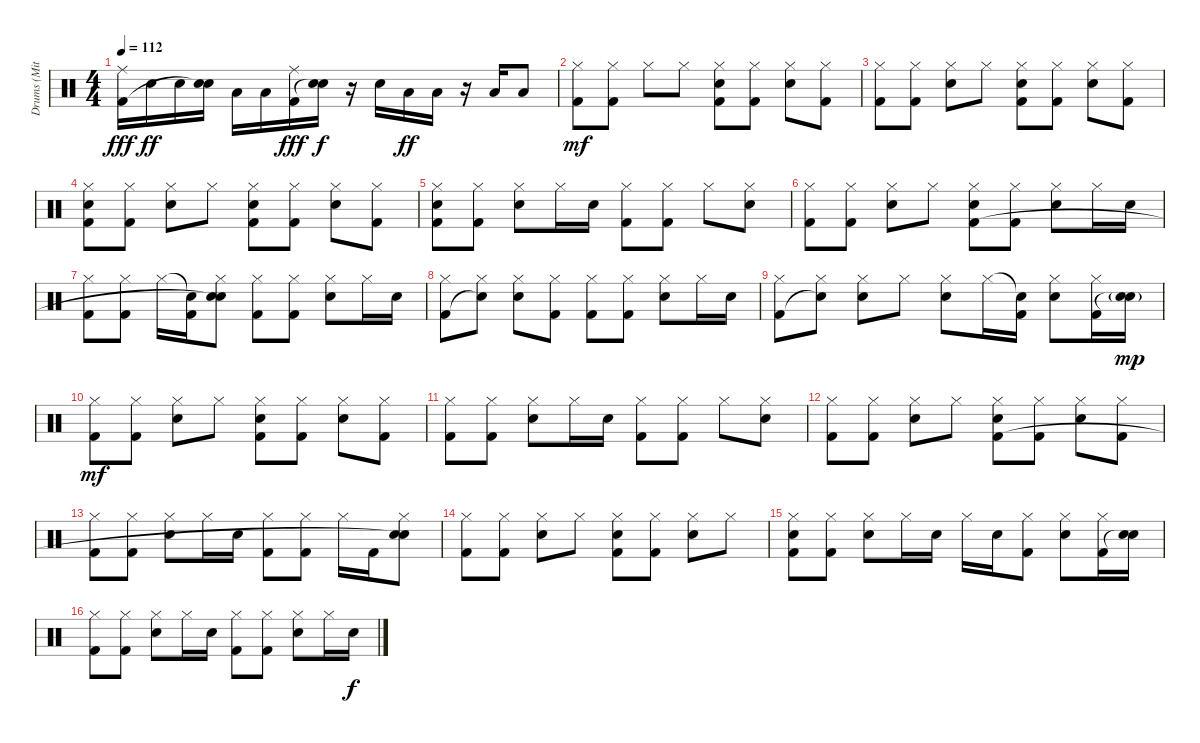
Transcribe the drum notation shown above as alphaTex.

\track ("Drums (Mitch Mitchell)" "Drums (Mit") {instrument percussion}
\staff {score}
\articulation defaults
\ts (4 4)
\tempo 112
\clef neutral
\ks c
("Ride (middle)" "Kick (hit) 2").16{dy fff} "Electric Snare (hit)".16{dy ff} "Electric Snare (hit)".16 ("Electric Snare (hit)" "Snare (hit)"{t}).16 "Low Tom (hit)".16 "Low Tom (hit)".16 ("Ride (middle)" "Kick (hit) 2").16{dy fff} ("Electric Snare (hit)" "Snare (hit)"{t}).16{dy f} r.16 "Electric Snare (hit)".16 "Low Tom (hit)".16{dy ff} "Low Tom (hit)".16 r.16 "Low Tom (hit)".16 "Low Tom (hit)".8 |
("Hi-Hat (closed)" "Kick (hit) 2").8{dy mf} ("Hi-Hat (closed)" "Kick (hit) 2").8 "Hi-Hat (closed)".8 "Hi-Hat (closed)".8 ("Hi-Hat (closed)" "Electric Snare (hit)" "Kick (hit) 2").8 ("Hi-Hat (closed)" "Kick (hit) 2").8 ("Hi-Hat (closed)" "Electric Snare (hit)").8 ("Hi-Hat (closed)" "Kick (hit) 2").8 |
("Hi-Hat (closed)" "Kick (hit) 2").8 ("Hi-Hat (closed)" "Kick (hit) 2").8 ("Hi-Hat (closed)" "Electric Snare (hit)").8 "Hi-Hat (closed)".8 ("Hi-Hat (closed)" "Electric Snare (hit)" "Kick (hit) 2").8 ("Hi-Hat (closed)" "Kick (hit) 2").8 ("Hi-Hat (closed)" "Electric Snare (hit)").8 ("Hi-Hat (closed)" "Kick (hit) 2").8 |
("Hi-Hat (closed)" "Electric Snare (hit)" "Kick (hit) 2").8 ("Hi-Hat (closed)" "Kick (hit) 2").8 ("Hi-Hat (closed)" "Electric Snare (hit)").8 "Hi-Hat (closed)".8 ("Hi-Hat (closed)" "Electric Snare (hit)" "Kick (hit) 2").8 ("Hi-Hat (closed)" "Kick (hit) 2").8 ("Hi-Hat (closed)" "Electric Snare (hit)").8 ("Hi-Hat (closed)" "Kick (hit) 2").8 |
("Hi-Hat (closed)" "Electric Snare (hit)" "Kick (hit) 2").8 ("Hi-Hat (closed)" "Kick (hit) 2").8 ("Hi-Hat (closed)" "Electric Snare (hit)").8 "Hi-Hat (closed)".16 "Electric Snare (hit)".16 ("Hi-Hat (closed)" "Kick (hit) 2").8 ("Hi-Hat (closed)" "Kick (hit) 2").8 "Hi-Hat (closed)".8 ("Hi-Hat (closed)" "Electric Snare (hit)").8 |
("Hi-Hat (closed)" "Kick (hit) 2").8 ("Hi-Hat (closed)" "Kick (hit) 2").8 ("Hi-Hat (closed)" "Electric Snare (hit)").8 "Hi-Hat (closed)".8 ("Hi-Hat (closed)" "Electric Snare (hit)" "Kick (hit) 2").8 ("Hi-Hat (closed)" "Kick (hit) 2").8 ("Hi-Hat (closed)" "Electric Snare (hit)").8 "Hi-Hat (closed)".16 "Electric Snare (hit)".16 |
("Hi-Hat (closed)" "Kick (hit) 2").8 ("Hi-Hat (closed)" "Kick (hit) 2").8 "Hi-Hat (closed)".16 ("Snare (hit)"{t} "Kick (hit) 2").16 ("Hi-Hat (closed)" "Electric Snare (hit)" "Snare (hit)"{t}).8 ("Hi-Hat (closed)" "Kick (hit) 2").8 ("Hi-Hat (closed)" "Kick (hit) 2").8 ("Hi-Hat (closed)" "Electric Snare (hit)").8 "Hi-Hat (closed)".16 "Electric Snare (hit)".16 |
("Hi-Hat (closed)" "Kick (hit) 2").8 ("Hi-Hat (closed)" "Snare (hit)"{t}).8 ("Hi-Hat (closed)" "Electric Snare (hit)").8 ("Hi-Hat (closed)" "Kick (hit) 2").8 ("Hi-Hat (closed)" "Kick (hit) 2").8 ("Hi-Hat (closed)" "Kick (hit) 2").8 ("Hi-Hat (closed)" "Electric Snare (hit)").8 "Hi-Hat (closed)".16 "Electric Snare (hit)".16 |
("Hi-Hat (closed)" "Kick (hit) 2").8 ("Hi-Hat (closed)" "Snare (hit)"{t}).8 ("Hi-Hat (closed)" "Electric Snare (hit)").8 "Hi-Hat (closed)".8 ("Hi-Hat (closed)" "Electric Snare (hit)").8 "Hi-Hat (closed)".16 ("Snare (hit)"{t} "Kick (hit) 2").16 ("Hi-Hat (closed)" "Electric Snare (hit)").8 ("Hi-Hat (closed)" "Kick (hit) 2").16 ("Electric Snare (hit)"{g} "Snare (hit)"{t}).16{dy mp} |
("Hi-Hat (closed)" "Kick (hit) 2").8{dy mf} ("Hi-Hat (closed)" "Kick (hit) 2").8 ("Hi-Hat (closed)" "Electric Snare (hit)").8 "Hi-Hat (closed)".8 ("Hi-Hat (closed)" "Electric Snare (hit)" "Kick (hit) 2").8 ("Hi-Hat (closed)" "Kick (hit) 2").8 ("Hi-Hat (closed)" "Electric Snare (hit)").8 ("Hi-Hat (closed)" "Kick (hit) 2").8 |
("Hi-Hat (closed)" "Kick (hit) 2").8 ("Hi-Hat (closed)" "Kick (hit) 2").8 ("Hi-Hat (closed)" "Electric Snare (hit)").8 "Hi-Hat (closed)".16 "Electric Snare (hit)".16 ("Hi-Hat (closed)" "Kick (hit) 2").8 ("Hi-Hat (closed)" "Kick (hit) 2").8 "Hi-Hat (closed)".8 ("Hi-Hat (closed)" "Electric Snare (hit)").8 |
("Hi-Hat (closed)" "Kick (hit) 2").8 ("Hi-Hat (closed)" "Kick (hit) 2").8 ("Hi-Hat (closed)" "Electric Snare (hit)").8 "Hi-Hat (closed)".8 ("Hi-Hat (closed)" "Electric Snare (hit)" "Kick (hit) 2").8 ("Hi-Hat (closed)" "Kick (hit) 2").8 ("Hi-Hat (closed)" "Electric Snare (hit)").8 ("Hi-Hat (closed)" "Kick (hit) 2").8 |
("Hi-Hat (closed)" "Kick (hit) 2").8 ("Hi-Hat (closed)" "Kick (hit) 2").8 ("Hi-Hat (closed)" "Electric Snare (hit)").8 "Hi-Hat (closed)".16 "Electric Snare (hit)".16 ("Hi-Hat (closed)" "Kick (hit) 2").8 ("Hi-Hat (closed)" "Kick (hit) 2").8 "Hi-Hat (closed)".16 "Kick (hit) 2".16 ("Hi-Hat (closed)" "Electric Snare (hit)" "Snare (hit)"{t}).8 |
("Hi-Hat (closed)" "Kick (hit) 2").8 ("Hi-Hat (closed)" "Kick (hit) 2").8 ("Hi-Hat (closed)" "Electric Snare (hit)").8 "Hi-Hat (closed)".8 ("Hi-Hat (closed)" "Electric Snare (hit)" "Kick (hit) 2").8 ("Hi-Hat (closed)" "Kick (hit) 2").8 ("Hi-Hat (closed)" "Electric Snare (hit)").8 "Hi-Hat (closed)".8 |
("Hi-Hat (closed)" "Electric Snare (hit)" "Kick (hit) 2").8 ("Hi-Hat (closed)" "Kick (hit) 2").8 ("Hi-Hat (closed)" "Electric Snare (hit)").8 "Hi-Hat (closed)".16 "Electric Snare (hit)".16 "Hi-Hat (closed)".16 "Electric Snare (hit)".16 ("Hi-Hat (closed)" "Kick (hit) 2").8 ("Hi-Hat (closed)" "Electric Snare (hit)").8 ("Hi-Hat (closed)" "Kick (hit) 2").16 ("Electric Snare (hit)" "Snare (hit)"{t}).16 |
("Hi-Hat (closed)" "Kick (hit) 2").8 ("Hi-Hat (closed)" "Kick (hit) 2").8 ("Hi-Hat (closed)" "Electric Snare (hit)").8 "Hi-Hat (closed)".16 "Electric Snare (hit)".16 ("Hi-Hat (closed)" "Kick (hit) 2").8 ("Hi-Hat (closed)" "Kick (hit) 2").8 ("Hi-Hat (closed)" "Electric Snare (hit)").8 "Hi-Hat (closed)".16 "Electric Snare (hit)".16{dy f}
